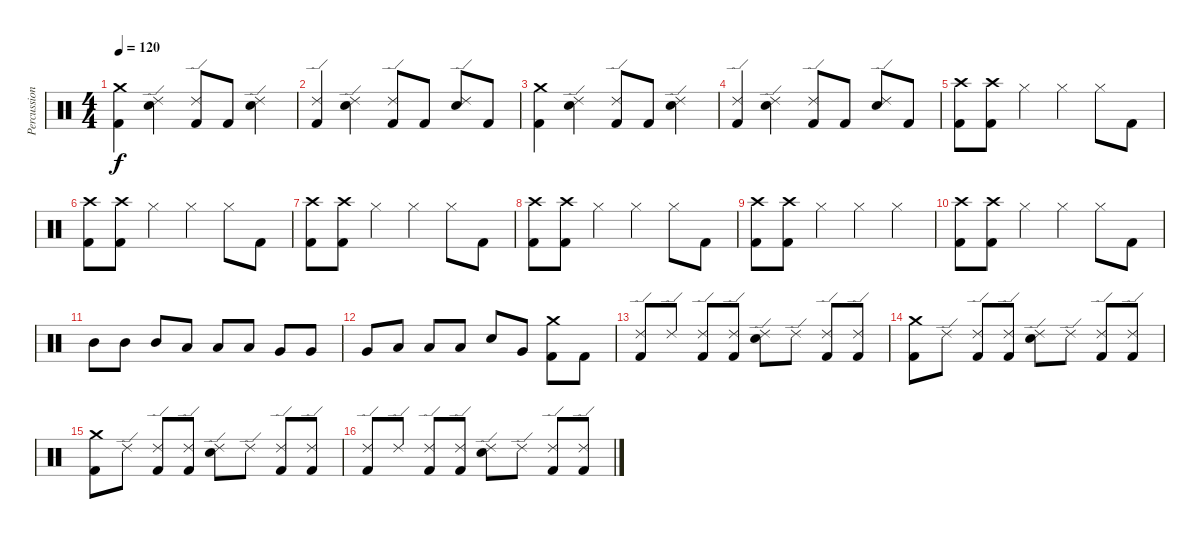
\track ("Percussion" "Percussion") {instrument percussion}
\staff {score}
\articulation defaults
\ts (4 4)
\tempo 120
\clef neutral
\ks c
("Crash medium (hit)" "Kick (hit) 2").4{dy f} ("Ride (edge) 2" "Snare (hit) 2").4 ("Ride (edge) 2" "Kick (hit) 2").8 "Kick (hit) 2".8 ("Ride (edge) 2" "Snare (hit) 2").4 |
("Ride (edge) 2" "Kick (hit) 2").4 ("Ride (edge) 2" "Snare (hit) 2").4 ("Ride (edge) 2" "Kick (hit) 2").8 "Kick (hit) 2".8 ("Ride (edge) 2" "Snare (hit) 2").8 "Kick (hit) 2".8 |
("Crash medium (hit)" "Kick (hit) 2").4 ("Ride (edge) 2" "Snare (hit) 2").4 ("Ride (edge) 2" "Kick (hit) 2").8 "Kick (hit) 2".8 ("Ride (edge) 2" "Snare (hit) 2").4 |
("Ride (edge) 2" "Kick (hit) 2").4 ("Ride (edge) 2" "Snare (hit) 2").4 ("Ride (edge) 2" "Kick (hit) 2").8 "Kick (hit) 2".8 ("Ride (edge) 2" "Snare (hit) 2").8 "Kick (hit) 2".8 |
("Crash high (hit)" "Kick (hit) 2").8 ("Crash high (hit)" "Kick (hit) 2").8 "Hi-Hat (closed)".4 "Hi-Hat (closed)".4 "Hi-Hat (closed)".8 "Kick (hit) 2".8 |
("Crash high (hit)" "Kick (hit) 2").8 ("Crash high (hit)" "Kick (hit) 2").8 "Hi-Hat (closed)".4 "Hi-Hat (closed)".4 "Hi-Hat (closed)".8 "Kick (hit) 2".8 |
("Crash high (hit)" "Kick (hit) 2").8 ("Crash high (hit)" "Kick (hit) 2").8 "Hi-Hat (closed)".4 "Hi-Hat (closed)".4 "Hi-Hat (closed)".8 "Kick (hit) 2".8 |
("Crash high (hit)" "Kick (hit) 2").8 ("Crash high (hit)" "Kick (hit) 2").8 "Hi-Hat (closed)".4 "Hi-Hat (closed)".4 "Hi-Hat (closed)".8 "Kick (hit) 2".8 |
("Crash high (hit)" "Kick (hit) 2").8 ("Crash high (hit)" "Kick (hit) 2").8 "Hi-Hat (closed)".4 "Hi-Hat (closed)".4 "Hi-Hat (closed)".4 |
("Crash high (hit)" "Kick (hit) 2").8 ("Crash high (hit)" "Kick (hit) 2").8 "Hi-Hat (closed)".4 "Hi-Hat (closed)".4 "Hi-Hat (closed)".8 "Kick (hit) 2".8 |
"Mid Tom (hit)".8 "Mid Tom (hit)".8 "Mid Tom (hit)".8 "Low Tom (hit)".8 "Low Tom (hit)".8 "Low Tom (hit)".8 "Very Low Tom (hit)".8 "Very Low Tom (hit)".8 |
"Very Low Tom (hit)".8 "Low Floor Tom (hit)".8 "Low Floor Tom (hit)".8 "Low Floor Tom (hit)".8 "Snare (hit) 2".8 "Very Low Tom (hit)".8 ("Crash medium (hit)" "Kick (hit) 2").8 "Kick (hit) 2".8 |
("Ride (edge) 2" "Kick (hit) 2").8 "Ride (edge) 2".8 ("Ride (edge) 2" "Kick (hit) 2").8 ("Ride (edge) 2" "Kick (hit) 2").8 ("Ride (edge) 2" "Snare (hit) 2").8 "Ride (edge) 2".8 ("Ride (edge) 2" "Kick (hit) 2").8 ("Ride (edge) 2" "Kick (hit) 2").8 |
("Crash medium (hit)" "Kick (hit) 2").8 "Ride (edge) 2".8 ("Ride (edge) 2" "Kick (hit) 2").8 ("Ride (edge) 2" "Kick (hit) 2").8 ("Ride (edge) 2" "Snare (hit) 2").8 "Ride (edge) 2".8 ("Ride (edge) 2" "Kick (hit) 2").8 ("Ride (edge) 2" "Kick (hit) 2").8 |
("Crash medium (hit)" "Kick (hit) 2").8 "Ride (edge) 2".8 ("Ride (edge) 2" "Kick (hit) 2").8 ("Ride (edge) 2" "Kick (hit) 2").8 ("Ride (edge) 2" "Snare (hit) 2").8 "Ride (edge) 2".8 ("Ride (edge) 2" "Kick (hit) 2").8 ("Ride (edge) 2" "Kick (hit) 2").8 |
("Ride (edge) 2" "Kick (hit) 2").8 "Ride (edge) 2".8 ("Ride (edge) 2" "Kick (hit) 2").8 ("Ride (edge) 2" "Kick (hit) 2").8 ("Ride (edge) 2" "Snare (hit) 2").8 "Ride (edge) 2".8 ("Ride (edge) 2" "Kick (hit) 2").8 ("Ride (edge) 2" "Kick (hit) 2").8
